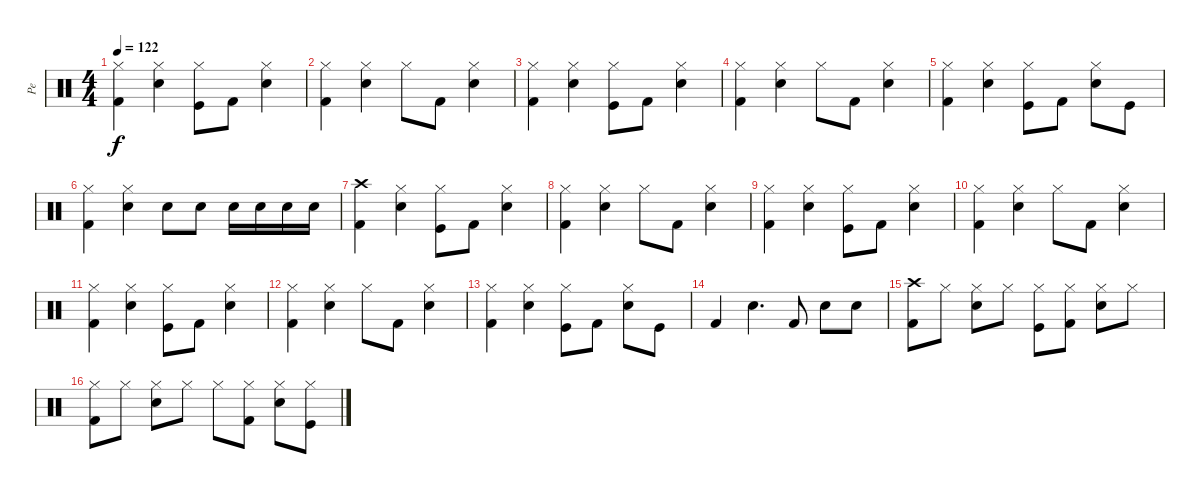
\track ("Pe" "Pe") {instrument percussion}
\staff {score}
\articulation defaults
\ts (4 4)
\tempo 122
\clef neutral
\ks c
("Kick (hit) 2" "Hi-Hat (closed)").4{dy f} ("Electric Snare (hit)" "Hi-Hat (closed)").4 ("Kick (hit)" "Hi-Hat (closed)").8 "Kick (hit) 2".8 ("Electric Snare (hit)" "Hi-Hat (closed)").4 |
("Kick (hit) 2" "Hi-Hat (closed)").4 ("Electric Snare (hit)" "Hi-Hat (closed)").4 "Hi-Hat (closed)".8 "Kick (hit) 2".8 ("Electric Snare (hit)" "Hi-Hat (closed)").4 |
("Kick (hit) 2" "Hi-Hat (closed)").4 ("Electric Snare (hit)" "Hi-Hat (closed)").4 ("Kick (hit)" "Hi-Hat (closed)").8 "Kick (hit) 2".8 ("Electric Snare (hit)" "Hi-Hat (closed)").4 |
("Kick (hit) 2" "Hi-Hat (closed)").4 ("Electric Snare (hit)" "Hi-Hat (closed)").4 "Hi-Hat (closed)".8 "Kick (hit) 2".8 ("Electric Snare (hit)" "Hi-Hat (closed)").4 |
("Kick (hit) 2" "Hi-Hat (closed)").4 ("Electric Snare (hit)" "Hi-Hat (closed)").4 ("Kick (hit)" "Hi-Hat (closed)").8 "Kick (hit) 2".8 ("Electric Snare (hit)" "Hi-Hat (closed)").8 "Kick (hit)".8 |
("Kick (hit) 2" "Hi-Hat (closed)").4 ("Electric Snare (hit)" "Hi-Hat (closed)").4 "Electric Snare (hit)".8 "Electric Snare (hit)".8 "Electric Snare (hit)".16 "Electric Snare (hit)".16 "Electric Snare (hit)".16 "Electric Snare (hit)".16 |
("Kick (hit) 2" "Crash high (hit)").4 ("Electric Snare (hit)" "Hi-Hat (closed)").4 ("Kick (hit)" "Hi-Hat (closed)").8 "Kick (hit) 2".8 ("Electric Snare (hit)" "Hi-Hat (closed)").4 |
("Kick (hit) 2" "Hi-Hat (closed)").4 ("Electric Snare (hit)" "Hi-Hat (closed)").4 "Hi-Hat (closed)".8 "Kick (hit) 2".8 ("Electric Snare (hit)" "Hi-Hat (closed)").4 |
("Kick (hit) 2" "Hi-Hat (closed)").4 ("Electric Snare (hit)" "Hi-Hat (closed)").4 ("Kick (hit)" "Hi-Hat (closed)").8 "Kick (hit) 2".8 ("Electric Snare (hit)" "Hi-Hat (closed)").4 |
("Kick (hit) 2" "Hi-Hat (closed)").4 ("Electric Snare (hit)" "Hi-Hat (closed)").4 "Hi-Hat (closed)".8 "Kick (hit) 2".8 ("Electric Snare (hit)" "Hi-Hat (closed)").4 |
("Kick (hit) 2" "Hi-Hat (closed)").4 ("Electric Snare (hit)" "Hi-Hat (closed)").4 ("Kick (hit)" "Hi-Hat (closed)").8 "Kick (hit) 2".8 ("Electric Snare (hit)" "Hi-Hat (closed)").4 |
("Kick (hit) 2" "Hi-Hat (closed)").4 ("Electric Snare (hit)" "Hi-Hat (closed)").4 "Hi-Hat (closed)".8 "Kick (hit) 2".8 ("Electric Snare (hit)" "Hi-Hat (closed)").4 |
("Kick (hit) 2" "Hi-Hat (closed)").4 ("Electric Snare (hit)" "Hi-Hat (closed)").4 ("Kick (hit)" "Hi-Hat (closed)").8 "Kick (hit) 2".8 ("Electric Snare (hit)" "Hi-Hat (closed)").8 "Kick (hit)".8 |
"Kick (hit) 2".4 "Electric Snare (hit)".4{d} "Kick (hit) 2".8 "Electric Snare (hit)".8 "Electric Snare (hit)".8 |
("Kick (hit) 2" "Crash high (hit)").8 "Hi-Hat (closed)".8 ("Electric Snare (hit)" "Hi-Hat (closed)").8 "Hi-Hat (closed)".8 ("Kick (hit)" "Hi-Hat (closed)").8 ("Kick (hit) 2" "Hi-Hat (closed)").8 ("Electric Snare (hit)" "Hi-Hat (closed)").8 "Hi-Hat (closed)".8 |
("Kick (hit) 2" "Hi-Hat (closed)").8 "Hi-Hat (closed)".8 ("Electric Snare (hit)" "Hi-Hat (closed)").8 "Hi-Hat (closed)".8 "Hi-Hat (closed)".8 ("Kick (hit) 2" "Hi-Hat (closed)").8 ("Electric Snare (hit)" "Hi-Hat (closed)").8 ("Kick (hit)" "Hi-Hat (closed)").8
